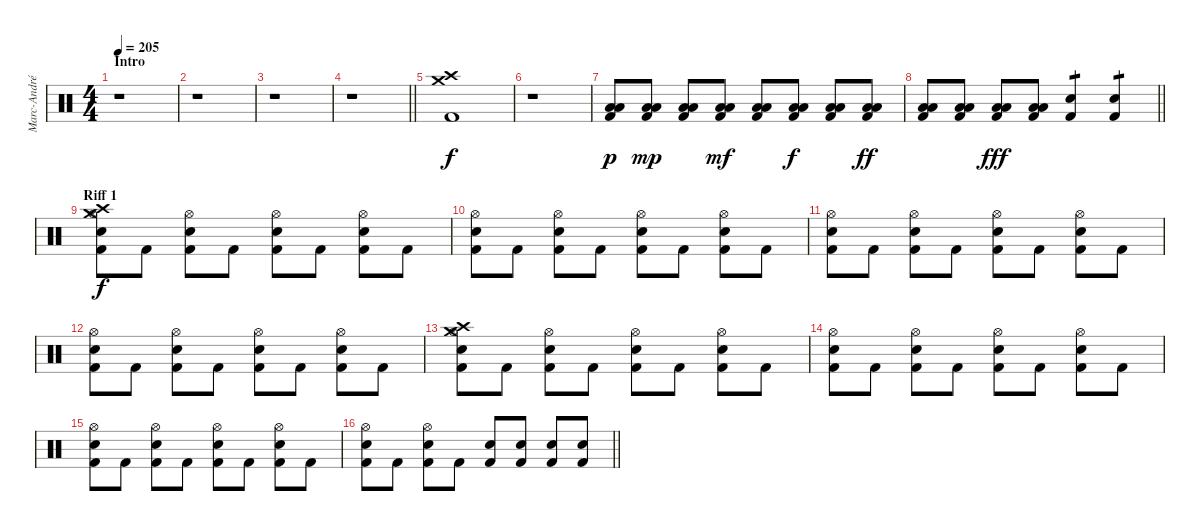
\track ("Marc-André Barabé" "Marc-André") {instrument percussion}
\staff {score}
\articulation defaults
\ts (4 4)
\section ("" "Intro")
\tempo 205
\clef neutral
\ks c
r.1{dy f} |
r.1 |
r.1 |
\barLineRight lightlight
r.1 |
("Crash high (hit)" "Crash medium (hit)" "Kick (hit) 2").1 |
r.1 |
("Low Tom (hit)" "Low Floor Tom (hit)" "Kick (hit) 2").8{dy p} ("Low Tom (hit)" "Low Floor Tom (hit)" "Kick (hit) 2").8{dy mp} ("Low Tom (hit)" "Low Floor Tom (hit)" "Kick (hit) 2").8 ("Low Tom (hit)" "Low Floor Tom (hit)" "Kick (hit) 2").8{dy mf} ("Low Tom (hit)" "Low Floor Tom (hit)" "Kick (hit) 2").8 ("Low Tom (hit)" "Low Floor Tom (hit)" "Kick (hit) 2").8{dy f} ("Low Tom (hit)" "Low Floor Tom (hit)" "Kick (hit) 2").8 ("Low Tom (hit)" "Low Floor Tom (hit)" "Kick (hit) 2").8{dy ff} |
\barLineRight lightlight
("Low Tom (hit)" "Low Floor Tom (hit)" "Kick (hit) 2").8 ("Low Tom (hit)" "Low Floor Tom (hit)" "Kick (hit) 2").8 ("Low Tom (hit)" "Low Floor Tom (hit)" "Kick (hit) 2").8{dy fff} ("Low Tom (hit)" "Low Floor Tom (hit)" "Kick (hit) 2").8 ("Electric Snare (hit)" "Kick (hit) 2").4{tp 1} ("Electric Snare (hit)" "Kick (hit) 2").4{tp 1} |
\section ("" "Riff 1")
("Crash high (hit)" "Crash medium (hit)" "Hi-Hat (open)" "Electric Snare (hit)" "Kick (hit) 2").8{dy f} "Kick (hit) 2".8 ("Hi-Hat (open)" "Electric Snare (hit)" "Kick (hit) 2").8 "Kick (hit) 2".8 ("Hi-Hat (open)" "Electric Snare (hit)" "Kick (hit) 2").8 "Kick (hit) 2".8 ("Hi-Hat (open)" "Electric Snare (hit)" "Kick (hit) 2").8 "Kick (hit) 2".8 |
("Hi-Hat (open)" "Electric Snare (hit)" "Kick (hit) 2").8 "Kick (hit) 2".8 ("Hi-Hat (open)" "Electric Snare (hit)" "Kick (hit) 2").8 "Kick (hit) 2".8 ("Hi-Hat (open)" "Electric Snare (hit)" "Kick (hit) 2").8 "Kick (hit) 2".8 ("Hi-Hat (open)" "Electric Snare (hit)" "Kick (hit) 2").8 "Kick (hit) 2".8 |
("Hi-Hat (open)" "Electric Snare (hit)" "Kick (hit) 2").8 "Kick (hit) 2".8 ("Hi-Hat (open)" "Electric Snare (hit)" "Kick (hit) 2").8 "Kick (hit) 2".8 ("Hi-Hat (open)" "Electric Snare (hit)" "Kick (hit) 2").8 "Kick (hit) 2".8 ("Hi-Hat (open)" "Electric Snare (hit)" "Kick (hit) 2").8 "Kick (hit) 2".8 |
("Hi-Hat (open)" "Electric Snare (hit)" "Kick (hit) 2").8 "Kick (hit) 2".8 ("Hi-Hat (open)" "Electric Snare (hit)" "Kick (hit) 2").8 "Kick (hit) 2".8 ("Hi-Hat (open)" "Electric Snare (hit)" "Kick (hit) 2").8 "Kick (hit) 2".8 ("Hi-Hat (open)" "Electric Snare (hit)" "Kick (hit) 2").8 "Kick (hit) 2".8 |
("Crash high (hit)" "Crash medium (hit)" "Hi-Hat (open)" "Electric Snare (hit)" "Kick (hit) 2").8 "Kick (hit) 2".8 ("Hi-Hat (open)" "Electric Snare (hit)" "Kick (hit) 2").8 "Kick (hit) 2".8 ("Hi-Hat (open)" "Electric Snare (hit)" "Kick (hit) 2").8 "Kick (hit) 2".8 ("Hi-Hat (open)" "Electric Snare (hit)" "Kick (hit) 2").8 "Kick (hit) 2".8 |
("Hi-Hat (open)" "Electric Snare (hit)" "Kick (hit) 2").8 "Kick (hit) 2".8 ("Hi-Hat (open)" "Electric Snare (hit)" "Kick (hit) 2").8 "Kick (hit) 2".8 ("Hi-Hat (open)" "Electric Snare (hit)" "Kick (hit) 2").8 "Kick (hit) 2".8 ("Hi-Hat (open)" "Electric Snare (hit)" "Kick (hit) 2").8 "Kick (hit) 2".8 |
("Hi-Hat (open)" "Electric Snare (hit)" "Kick (hit) 2").8 "Kick (hit) 2".8 ("Hi-Hat (open)" "Electric Snare (hit)" "Kick (hit) 2").8 "Kick (hit) 2".8 ("Hi-Hat (open)" "Electric Snare (hit)" "Kick (hit) 2").8 "Kick (hit) 2".8 ("Hi-Hat (open)" "Electric Snare (hit)" "Kick (hit) 2").8 "Kick (hit) 2".8 |
\barLineRight lightlight
("Hi-Hat (open)" "Electric Snare (hit)" "Kick (hit) 2").8 "Kick (hit) 2".8 ("Hi-Hat (open)" "Electric Snare (hit)" "Kick (hit) 2").8 "Kick (hit) 2".8 ("Electric Snare (hit)"{tr (4 32)} "Kick (hit) 2").8 ("Electric Snare (hit)"{tr (4 32)} "Kick (hit) 2").8 ("Electric Snare (hit)"{tr (4 32)} "Kick (hit) 2").8 ("Electric Snare (hit)"{tr (4 32)} "Kick (hit) 2").8
